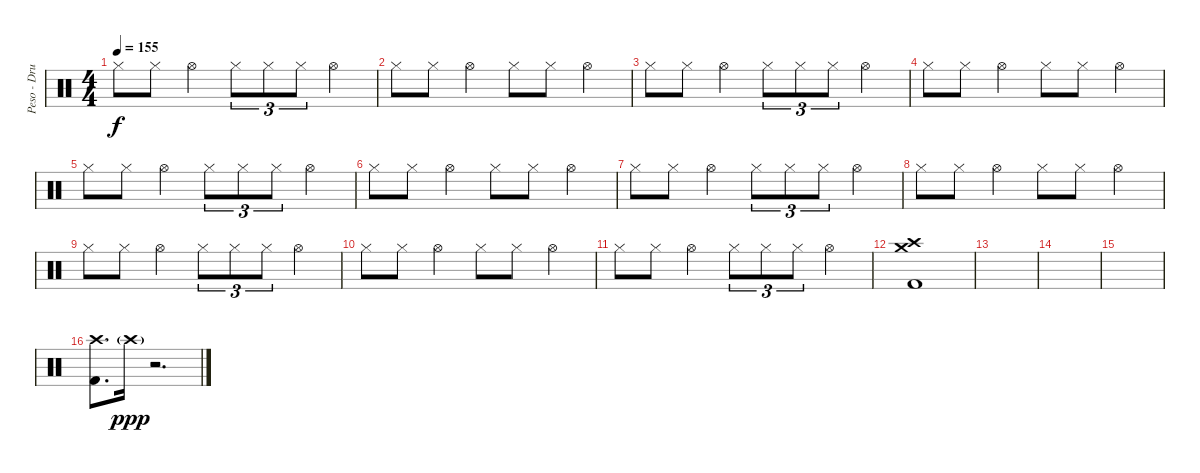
\track ("Peso - Drums" "Peso - Dru") {instrument percussion}
\staff {score}
\articulation defaults
\ts (4 4)
\tempo 155
\clef neutral
\ks c "Hi-Hat (closed)".8{dy f} "Hi-Hat (closed)".8 "Hi-Hat (open)".4 "Hi-Hat (closed)".8{tu (3 2)} "Hi-Hat (closed)".8{tu (3 2)} "Hi-Hat (closed)".8{tu (3 2)} "Hi-Hat (open)".4
|
"Hi-Hat (closed)".8 "Hi-Hat (closed)".8 "Hi-Hat (open)".4 "Hi-Hat (closed)".8 "Hi-Hat (closed)".8 "Hi-Hat (open)".4 |
"Hi-Hat (closed)".8 "Hi-Hat (closed)".8 "Hi-Hat (open)".4 "Hi-Hat (closed)".8{tu (3 2)} "Hi-Hat (closed)".8{tu (3 2)} "Hi-Hat (closed)".8{tu (3 2)} "Hi-Hat (open)".4 |
"Hi-Hat (closed)".8 "Hi-Hat (closed)".8 "Hi-Hat (open)".4 "Hi-Hat (closed)".8 "Hi-Hat (closed)".8 "Hi-Hat (open)".4 |
"Hi-Hat (closed)".8 "Hi-Hat (closed)".8 "Hi-Hat (open)".4 "Hi-Hat (closed)".8{tu (3 2)} "Hi-Hat (closed)".8{tu (3 2)} "Hi-Hat (closed)".8{tu (3 2)} "Hi-Hat (open)".4 |
"Hi-Hat (closed)".8 "Hi-Hat (closed)".8 "Hi-Hat (open)".4 "Hi-Hat (closed)".8 "Hi-Hat (closed)".8 "Hi-Hat (open)".4 |
"Hi-Hat (closed)".8 "Hi-Hat (closed)".8 "Hi-Hat (open)".4 "Hi-Hat (closed)".8{tu (3 2)} "Hi-Hat (closed)".8{tu (3 2)} "Hi-Hat (closed)".8{tu (3 2)} "Hi-Hat (open)".4 |
"Hi-Hat (closed)".8 "Hi-Hat (closed)".8 "Hi-Hat (open)".4 "Hi-Hat (closed)".8 "Hi-Hat (closed)".8 "Hi-Hat (open)".4 |
"Hi-Hat (closed)".8 "Hi-Hat (closed)".8 "Hi-Hat (open)".4 "Hi-Hat (closed)".8{tu (3 2)} "Hi-Hat (closed)".8{tu (3 2)} "Hi-Hat (closed)".8{tu (3 2)} "Hi-Hat (open)".4 |
"Hi-Hat (closed)".8 "Hi-Hat (closed)".8 "Hi-Hat (open)".4 "Hi-Hat (closed)".8 "Hi-Hat (closed)".8 "Hi-Hat (open)".4 |
"Hi-Hat (closed)".8 "Hi-Hat (closed)".8 "Hi-Hat (open)".4 "Hi-Hat (closed)".8{tu (3 2)} "Hi-Hat (closed)".8{tu (3 2)} "Hi-Hat (closed)".8{tu (3 2)} "Hi-Hat (open)".4 |
("Crash medium (hit)" "Crash high (hit)" "Kick (hit) 2").1 |
|
|
|
("Crash high (hit)" "Kick (hit) 2").8{d} "Crash high (hit)"{g}.16{dy ppp} r.2{d}
